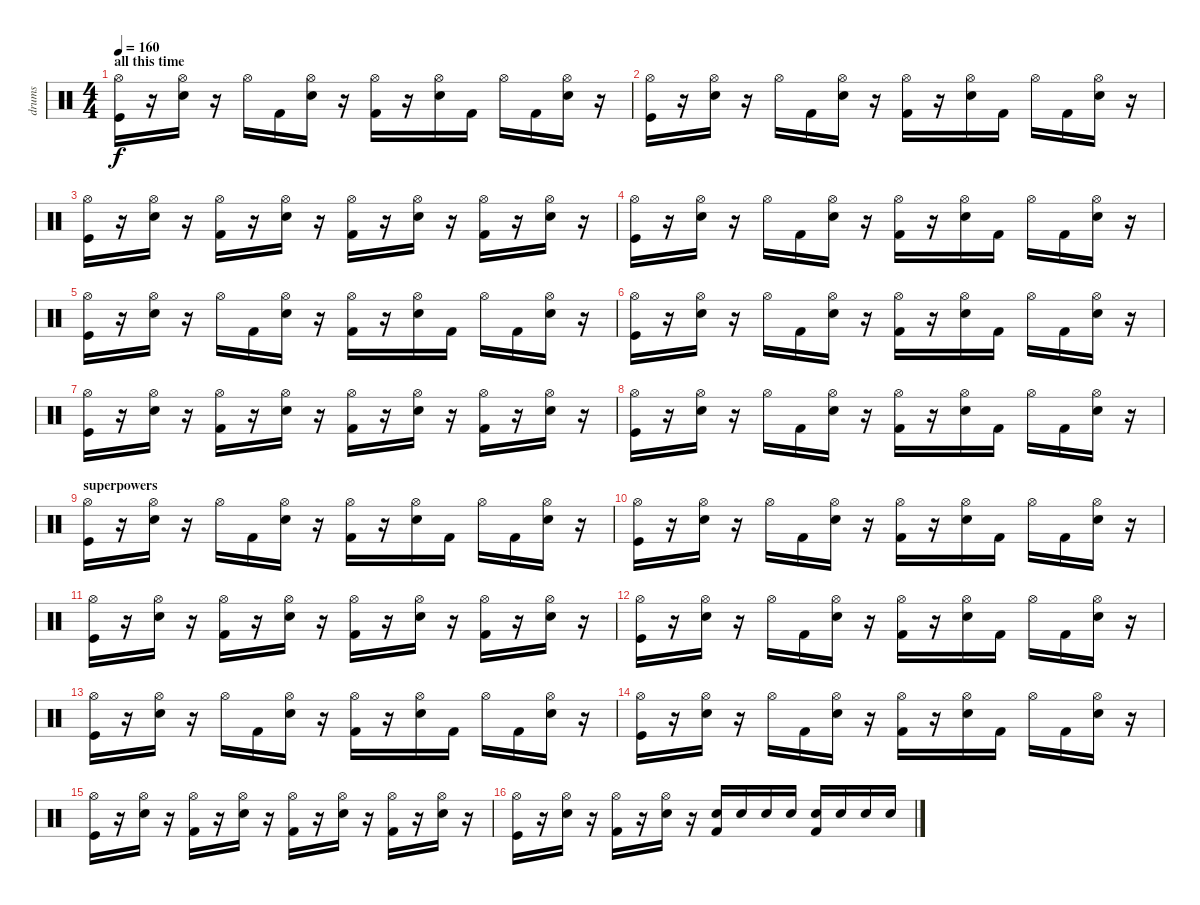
\track ("drums" "drums") {instrument percussion}
\staff {score}
\articulation defaults
\ts (4 4)
\section ("" "all this time")
\tempo 160
\clef neutral
\ks c
("Hi-Hat (open)" "Kick (hit)").16{dy f} r.16 ("Hi-Hat (open)" "Snare (hit) 2").16 r.16 "Hi-Hat (open)".16 "Kick (hit) 2".16 ("Hi-Hat (open)" "Snare (hit) 2").16 r.16 ("Hi-Hat (open)" "Kick (hit) 2").16 r.16 ("Hi-Hat (open)" "Snare (hit) 2").16 "Kick (hit) 2".16 "Hi-Hat (open)".16 "Kick (hit) 2".16 ("Hi-Hat (open)" "Snare (hit) 2").16 r.16 |
("Hi-Hat (open)" "Kick (hit)").16 r.16 ("Hi-Hat (open)" "Snare (hit) 2").16 r.16 "Hi-Hat (open)".16 "Kick (hit) 2".16 ("Hi-Hat (open)" "Snare (hit) 2").16 r.16 ("Hi-Hat (open)" "Kick (hit) 2").16 r.16 ("Hi-Hat (open)" "Snare (hit) 2").16 "Kick (hit) 2".16 "Hi-Hat (open)".16 "Kick (hit) 2".16 ("Hi-Hat (open)" "Snare (hit) 2").16 r.16 |
("Hi-Hat (open)" "Kick (hit)").16 r.16 ("Hi-Hat (open)" "Snare (hit) 2").16 r.16 ("Hi-Hat (open)" "Kick (hit) 2").16 r.16 ("Hi-Hat (open)" "Snare (hit) 2").16 r.16 ("Hi-Hat (open)" "Kick (hit) 2").16 r.16 ("Hi-Hat (open)" "Snare (hit) 2").16 r.16 ("Hi-Hat (open)" "Kick (hit) 2").16 r.16 ("Hi-Hat (open)" "Snare (hit) 2").16 r.16 |
("Hi-Hat (open)" "Kick (hit)").16 r.16 ("Hi-Hat (open)" "Snare (hit) 2").16 r.16 "Hi-Hat (open)".16 "Kick (hit) 2".16 ("Hi-Hat (open)" "Snare (hit) 2").16 r.16 ("Hi-Hat (open)" "Kick (hit) 2").16 r.16 ("Hi-Hat (open)" "Snare (hit) 2").16 "Kick (hit) 2".16 "Hi-Hat (open)".16 "Kick (hit) 2".16 ("Hi-Hat (open)" "Snare (hit) 2").16 r.16 |
("Hi-Hat (open)" "Kick (hit)").16 r.16 ("Hi-Hat (open)" "Snare (hit) 2").16 r.16 "Hi-Hat (open)".16 "Kick (hit) 2".16 ("Hi-Hat (open)" "Snare (hit) 2").16 r.16 ("Hi-Hat (open)" "Kick (hit) 2").16 r.16 ("Hi-Hat (open)" "Snare (hit) 2").16 "Kick (hit) 2".16 "Hi-Hat (open)".16 "Kick (hit) 2".16 ("Hi-Hat (open)" "Snare (hit) 2").16 r.16 |
("Hi-Hat (open)" "Kick (hit)").16 r.16 ("Hi-Hat (open)" "Snare (hit) 2").16 r.16 "Hi-Hat (open)".16 "Kick (hit) 2".16 ("Hi-Hat (open)" "Snare (hit) 2").16 r.16 ("Hi-Hat (open)" "Kick (hit) 2").16 r.16 ("Hi-Hat (open)" "Snare (hit) 2").16 "Kick (hit) 2".16 "Hi-Hat (open)".16 "Kick (hit) 2".16 ("Hi-Hat (open)" "Snare (hit) 2").16 r.16 |
("Hi-Hat (open)" "Kick (hit)").16 r.16 ("Hi-Hat (open)" "Snare (hit) 2").16 r.16 ("Hi-Hat (open)" "Kick (hit) 2").16 r.16 ("Hi-Hat (open)" "Snare (hit) 2").16 r.16 ("Hi-Hat (open)" "Kick (hit) 2").16 r.16 ("Hi-Hat (open)" "Snare (hit) 2").16 r.16 ("Hi-Hat (open)" "Kick (hit) 2").16 r.16 ("Hi-Hat (open)" "Snare (hit) 2").16 r.16 |
("Hi-Hat (open)" "Kick (hit)").16 r.16 ("Hi-Hat (open)" "Snare (hit) 2").16 r.16 "Hi-Hat (open)".16 "Kick (hit) 2".16 ("Hi-Hat (open)" "Snare (hit) 2").16 r.16 ("Hi-Hat (open)" "Kick (hit) 2").16 r.16 ("Hi-Hat (open)" "Snare (hit) 2").16 "Kick (hit) 2".16 "Hi-Hat (open)".16 "Kick (hit) 2".16 ("Hi-Hat (open)" "Snare (hit) 2").16 r.16 |
\section ("" "superpowers")
("Hi-Hat (open)" "Kick (hit)").16 r.16 ("Hi-Hat (open)" "Snare (hit) 2").16 r.16 "Hi-Hat (open)".16 "Kick (hit) 2".16 ("Hi-Hat (open)" "Snare (hit) 2").16 r.16 ("Hi-Hat (open)" "Kick (hit) 2").16 r.16 ("Hi-Hat (open)" "Snare (hit) 2").16 "Kick (hit) 2".16 "Hi-Hat (open)".16 "Kick (hit) 2".16 ("Hi-Hat (open)" "Snare (hit) 2").16 r.16 |
("Hi-Hat (open)" "Kick (hit)").16 r.16 ("Hi-Hat (open)" "Snare (hit) 2").16 r.16 "Hi-Hat (open)".16 "Kick (hit) 2".16 ("Hi-Hat (open)" "Snare (hit) 2").16 r.16 ("Hi-Hat (open)" "Kick (hit) 2").16 r.16 ("Hi-Hat (open)" "Snare (hit) 2").16 "Kick (hit) 2".16 "Hi-Hat (open)".16 "Kick (hit) 2".16 ("Hi-Hat (open)" "Snare (hit) 2").16 r.16 |
("Hi-Hat (open)" "Kick (hit)").16 r.16 ("Hi-Hat (open)" "Snare (hit) 2").16 r.16 ("Hi-Hat (open)" "Kick (hit) 2").16 r.16 ("Hi-Hat (open)" "Snare (hit) 2").16 r.16 ("Hi-Hat (open)" "Kick (hit) 2").16 r.16 ("Hi-Hat (open)" "Snare (hit) 2").16 r.16 ("Hi-Hat (open)" "Kick (hit) 2").16 r.16 ("Hi-Hat (open)" "Snare (hit) 2").16 r.16 |
("Hi-Hat (open)" "Kick (hit)").16 r.16 ("Hi-Hat (open)" "Snare (hit) 2").16 r.16 "Hi-Hat (open)".16 "Kick (hit) 2".16 ("Hi-Hat (open)" "Snare (hit) 2").16 r.16 ("Hi-Hat (open)" "Kick (hit) 2").16 r.16 ("Hi-Hat (open)" "Snare (hit) 2").16 "Kick (hit) 2".16 "Hi-Hat (open)".16 "Kick (hit) 2".16 ("Hi-Hat (open)" "Snare (hit) 2").16 r.16 |
("Hi-Hat (open)" "Kick (hit)").16 r.16 ("Hi-Hat (open)" "Snare (hit) 2").16 r.16 "Hi-Hat (open)".16 "Kick (hit) 2".16 ("Hi-Hat (open)" "Snare (hit) 2").16 r.16 ("Hi-Hat (open)" "Kick (hit) 2").16 r.16 ("Hi-Hat (open)" "Snare (hit) 2").16 "Kick (hit) 2".16 "Hi-Hat (open)".16 "Kick (hit) 2".16 ("Hi-Hat (open)" "Snare (hit) 2").16 r.16 |
("Hi-Hat (open)" "Kick (hit)").16 r.16 ("Hi-Hat (open)" "Snare (hit) 2").16 r.16 "Hi-Hat (open)".16 "Kick (hit) 2".16 ("Hi-Hat (open)" "Snare (hit) 2").16 r.16 ("Hi-Hat (open)" "Kick (hit) 2").16 r.16 ("Hi-Hat (open)" "Snare (hit) 2").16 "Kick (hit) 2".16 "Hi-Hat (open)".16 "Kick (hit) 2".16 ("Hi-Hat (open)" "Snare (hit) 2").16 r.16 |
("Hi-Hat (open)" "Kick (hit)").16 r.16 ("Hi-Hat (open)" "Snare (hit) 2").16 r.16 ("Hi-Hat (open)" "Kick (hit) 2").16 r.16 ("Hi-Hat (open)" "Snare (hit) 2").16 r.16 ("Hi-Hat (open)" "Kick (hit) 2").16 r.16 ("Hi-Hat (open)" "Snare (hit) 2").16 r.16 ("Hi-Hat (open)" "Kick (hit) 2").16 r.16 ("Hi-Hat (open)" "Snare (hit) 2").16 r.16 |
("Hi-Hat (open)" "Kick (hit)").16 r.16 ("Hi-Hat (open)" "Snare (hit) 2").16 r.16 ("Hi-Hat (open)" "Kick (hit) 2").16 r.16 ("Hi-Hat (open)" "Snare (hit) 2").16 r.16 ("Snare (hit) 2" "Kick (hit) 2").16 "Snare (hit) 2".16 "Snare (hit) 2".16 "Snare (hit) 2".16 ("Snare (hit) 2" "Kick (hit) 2").16 "Snare (hit) 2".16 "Snare (hit) 2".16 "Snare (hit) 2".16
